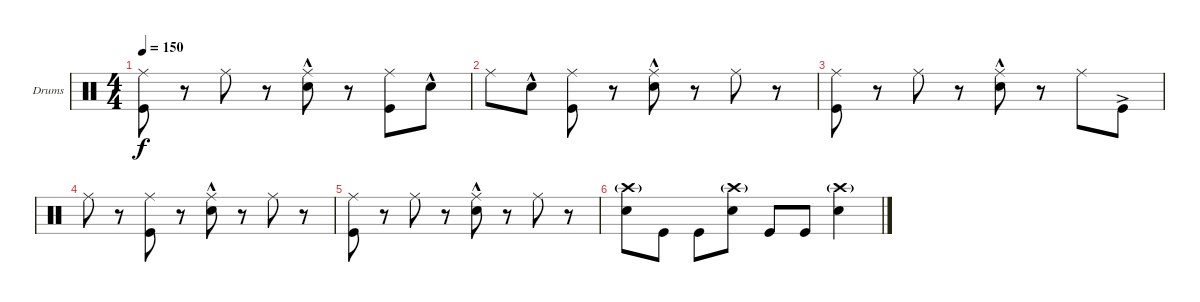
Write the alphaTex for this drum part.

\bracketExtendMode groupsimilarinstruments
\firstSystemTrackNameOrientation horizontal
\otherSystemsTrackNameOrientation horizontal
\track ("Drumkit" "Drums") {instrument percussion}
\staff {score}
\articulation defaults
\ts (4 4)
\tempo 150
\clef neutral
\ks c
("Kick (hit)" "Ride (middle)").8{dy f} r.8 "Ride (middle)".8 r.8 ("Snare (hit) 2"{hac} "Ride (middle)").8 r.8 ("Kick (hit)" "Ride (middle)").8 "Snare (hit) 2"{hac}.8 |
"Ride (middle)".8 "Snare (hit) 2"{hac}.8 ("Kick (hit)" "Ride (middle)").8 r.8 ("Snare (hit) 2"{hac} "Ride (middle)").8 r.8 "Ride (middle)".8 r.8 |
("Kick (hit)" "Ride (middle)").8 r.8 "Ride (middle)".8 r.8 ("Snare (hit) 2"{hac} "Ride (middle)").8 r.8 "Ride (middle)".8 "Kick (hit)"{ac}.8 |
"Ride (middle)".8 r.8 ("Kick (hit)" "Ride (middle)").8 r.8 ("Snare (hit) 2"{hac} "Ride (middle)").8 r.8 "Ride (middle)".8 r.8 |
("Kick (hit)" "Ride (middle)").8 r.8 "Ride (middle)".8 r.8 ("Snare (hit) 2"{hac} "Ride (middle)").8 r.8 "Ride (middle)".8 r.8 |
("Crash high (hit)"{g} "Snare (hit) 2").8 "Kick (hit)".8 "Kick (hit)".8 ("Crash high (hit)"{g} "Snare (hit) 2").8 "Kick (hit)".8 "Kick (hit)".8 ("Crash high (hit)"{g} "Snare (hit) 2").4
